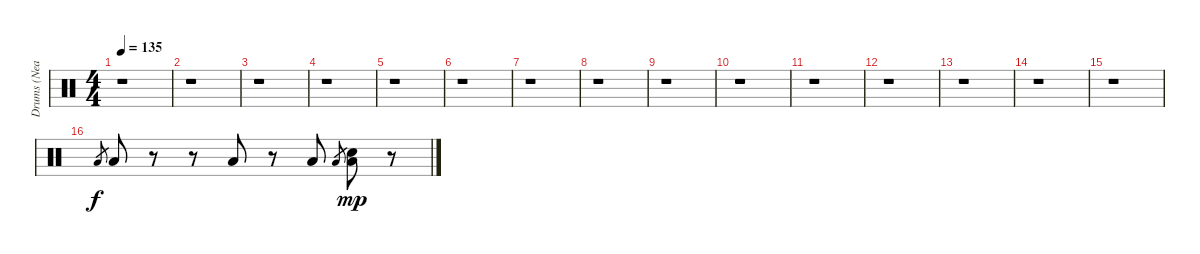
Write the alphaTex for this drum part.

\track ("Drums (Neal Peart)" "Drums (Nea") {instrument percussion}
\staff {score}
\articulation defaults
\ts (4 4)
\tempo 135
\clef neutral
\ks c
r.1{dy f} |
r.1 |
r.1 |
r.1 |
r.1 |
r.1 |
r.1 |
r.1 |
r.1 |
r.1 |
r.1 |
r.1 |
r.1 |
r.1 |
r.1 |
"Low Tom (hit)".8{gr} "Low Tom (hit)".8 r.8 r.8 "Low Tom (hit)".8 r.8 "Low Tom (hit)".8 "Low Tom (hit)".8{gr} ("Electric Snare (hit)" "Low Tom (hit)").8{dy mp} r.8
